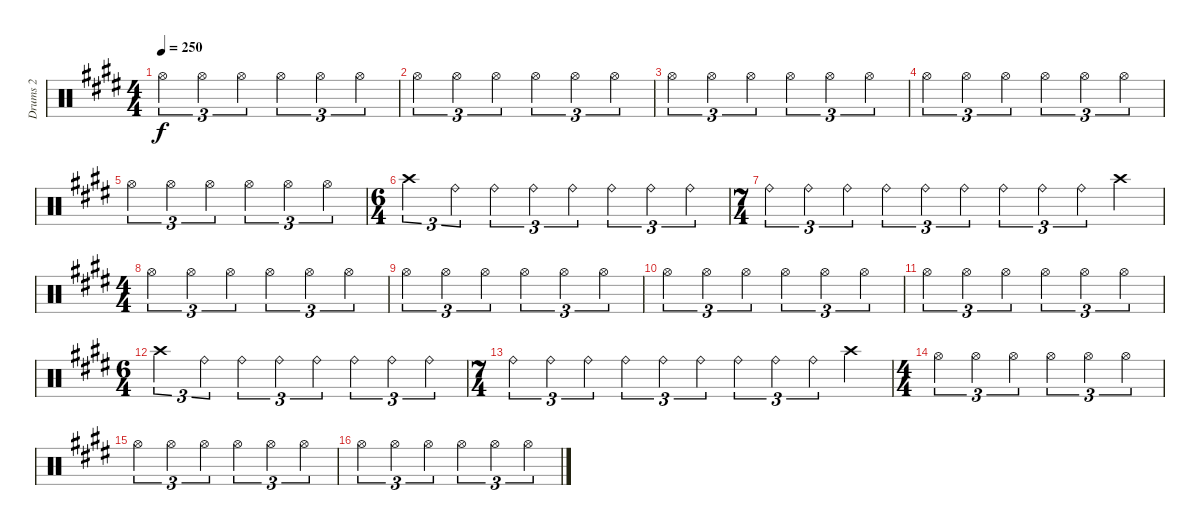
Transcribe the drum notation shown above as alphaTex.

\track ("Drums 2" "Drums 2") {instrument percussion}
\staff {score}
\articulation defaults
\ts (4 4)
\tempo 250
\clef neutral
\ks c#minor "Hi-Hat (open)".4{tu (3 2) dy f} "Hi-Hat (open)".4{tu (3 2)} "Hi-Hat (open)".4{tu (3 2)} "Hi-Hat (open)".4{tu (3 2)} "Hi-Hat (open)".4{tu (3 2)} "Hi-Hat (open)".4{tu (3 2)}
|
"Hi-Hat (open)".4{tu (3 2)} "Hi-Hat (open)".4{tu (3 2)} "Hi-Hat (open)".4{tu (3 2)} "Hi-Hat (open)".4{tu (3 2)} "Hi-Hat (open)".4{tu (3 2)} "Hi-Hat (open)".4{tu (3 2)} |
"Hi-Hat (open)".4{tu (3 2)} "Hi-Hat (open)".4{tu (3 2)} "Hi-Hat (open)".4{tu (3 2)} "Hi-Hat (open)".4{tu (3 2)} "Hi-Hat (open)".4{tu (3 2)} "Hi-Hat (open)".4{tu (3 2)} |
"Hi-Hat (open)".4{tu (3 2)} "Hi-Hat (open)".4{tu (3 2)} "Hi-Hat (open)".4{tu (3 2)} "Hi-Hat (open)".4{tu (3 2)} "Hi-Hat (open)".4{tu (3 2)} "Hi-Hat (open)".4{tu (3 2)} |
"Hi-Hat (open)".4{tu (3 2)} "Hi-Hat (open)".4{tu (3 2)} "Hi-Hat (open)".4{tu (3 2)} "Hi-Hat (open)".4{tu (3 2)} "Hi-Hat (open)".4{tu (3 2)} "Hi-Hat (open)".4{tu (3 2)} |
\ts (6 4)
"Crash high (hit)".2{tu (3 2)} "Ride (bell)".4{tu (3 2)} "Ride (bell)".4{tu (3 2)} "Ride (bell)".4{tu (3 2)} "Ride (bell)".4{tu (3 2)} "Ride (bell)".4{tu (3 2)} "Ride (bell)".4{tu (3 2)} "Ride (bell)".4{tu (3 2)} |
\ts (7 4)
"Ride (bell)".4{tu (3 2)} "Ride (bell)".4{tu (3 2)} "Ride (bell)".4{tu (3 2)} "Ride (bell)".4{tu (3 2)} "Ride (bell)".4{tu (3 2)} "Ride (bell)".4{tu (3 2)} "Ride (bell)".4{tu (3 2)} "Ride (bell)".4{tu (3 2)} "Ride (bell)".4{tu (3 2)} "Crash high (hit)".4 |
\ts (4 4)
"Hi-Hat (open)".4{tu (3 2)} "Hi-Hat (open)".4{tu (3 2)} "Hi-Hat (open)".4{tu (3 2)} "Hi-Hat (open)".4{tu (3 2)} "Hi-Hat (open)".4{tu (3 2)} "Hi-Hat (open)".4{tu (3 2)} |
"Hi-Hat (open)".4{tu (3 2)} "Hi-Hat (open)".4{tu (3 2)} "Hi-Hat (open)".4{tu (3 2)} "Hi-Hat (open)".4{tu (3 2)} "Hi-Hat (open)".4{tu (3 2)} "Hi-Hat (open)".4{tu (3 2)} |
"Hi-Hat (open)".4{tu (3 2)} "Hi-Hat (open)".4{tu (3 2)} "Hi-Hat (open)".4{tu (3 2)} "Hi-Hat (open)".4{tu (3 2)} "Hi-Hat (open)".4{tu (3 2)} "Hi-Hat (open)".4{tu (3 2)} |
"Hi-Hat (open)".4{tu (3 2)} "Hi-Hat (open)".4{tu (3 2)} "Hi-Hat (open)".4{tu (3 2)} "Hi-Hat (open)".4{tu (3 2)} "Hi-Hat (open)".4{tu (3 2)} "Hi-Hat (open)".4{tu (3 2)} |
\ts (6 4)
"Crash high (hit)".2{tu (3 2)} "Ride (bell)".4{tu (3 2)} "Ride (bell)".4{tu (3 2)} "Ride (bell)".4{tu (3 2)} "Ride (bell)".4{tu (3 2)} "Ride (bell)".4{tu (3 2)} "Ride (bell)".4{tu (3 2)} "Ride (bell)".4{tu (3 2)} |
\ts (7 4)
"Ride (bell)".4{tu (3 2)} "Ride (bell)".4{tu (3 2)} "Ride (bell)".4{tu (3 2)} "Ride (bell)".4{tu (3 2)} "Ride (bell)".4{tu (3 2)} "Ride (bell)".4{tu (3 2)} "Ride (bell)".4{tu (3 2)} "Ride (bell)".4{tu (3 2)} "Ride (bell)".4{tu (3 2)} "Crash high (hit)".4 |
\ts (4 4)
"Hi-Hat (open)".4{tu (3 2)} "Hi-Hat (open)".4{tu (3 2)} "Hi-Hat (open)".4{tu (3 2)} "Hi-Hat (open)".4{tu (3 2)} "Hi-Hat (open)".4{tu (3 2)} "Hi-Hat (open)".4{tu (3 2)} |
"Hi-Hat (open)".4{tu (3 2)} "Hi-Hat (open)".4{tu (3 2)} "Hi-Hat (open)".4{tu (3 2)} "Hi-Hat (open)".4{tu (3 2)} "Hi-Hat (open)".4{tu (3 2)} "Hi-Hat (open)".4{tu (3 2)} |
"Hi-Hat (open)".4{tu (3 2)} "Hi-Hat (open)".4{tu (3 2)} "Hi-Hat (open)".4{tu (3 2)} "Hi-Hat (open)".4{tu (3 2)} "Hi-Hat (open)".4{tu (3 2)} "Hi-Hat (open)".4{tu (3 2)}
